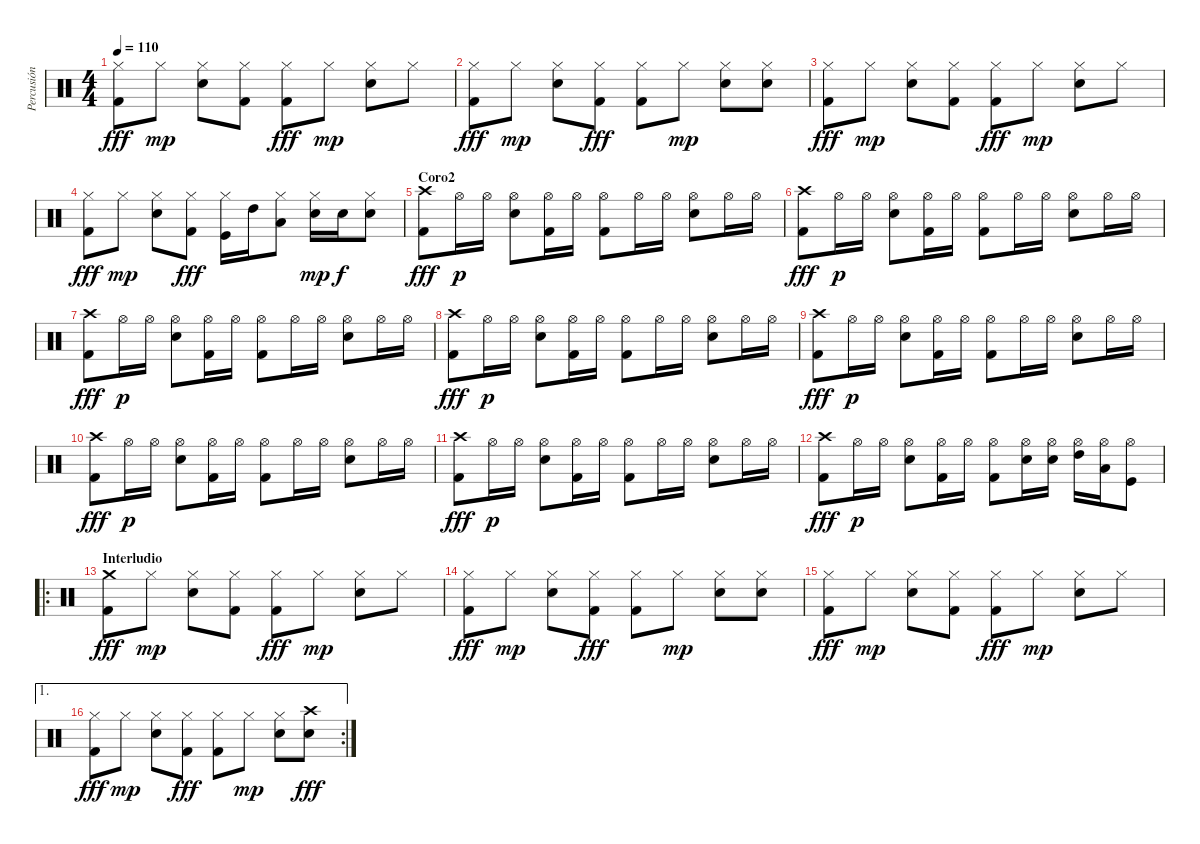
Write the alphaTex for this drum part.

\track ("Percusión" "Percusión") {instrument percussion}
\staff {score}
\articulation defaults
\ts (4 4)
\tempo 110
\clef neutral
\ks c
("Hi-Hat (closed)" "Kick (hit) 2").8{dy fff} "Hi-Hat (closed)".8{dy mp} ("Hi-Hat (closed)" "Snare (hit) 2").8 ("Hi-Hat (closed)" "Kick (hit) 2").8 ("Hi-Hat (closed)" "Kick (hit) 2").8{dy fff} "Hi-Hat (closed)".8{dy mp} ("Hi-Hat (closed)" "Snare (hit) 2").8 "Hi-Hat (closed)".8 |
("Hi-Hat (closed)" "Kick (hit) 2").8{dy fff} "Hi-Hat (closed)".8{dy mp} ("Hi-Hat (closed)" "Snare (hit) 2").8 ("Hi-Hat (closed)" "Kick (hit) 2").8{dy fff} ("Hi-Hat (closed)" "Kick (hit) 2").8 "Hi-Hat (closed)".8{dy mp} ("Hi-Hat (closed)" "Snare (hit) 2").8 ("Hi-Hat (closed)" "Snare (hit) 2").8 |
("Hi-Hat (closed)" "Kick (hit) 2").8{dy fff} "Hi-Hat (closed)".8{dy mp} ("Hi-Hat (closed)" "Snare (hit) 2").8 ("Hi-Hat (closed)" "Kick (hit) 2").8 ("Hi-Hat (closed)" "Kick (hit) 2").8{dy fff} "Hi-Hat (closed)".8{dy mp} ("Hi-Hat (closed)" "Snare (hit) 2").8 "Hi-Hat (closed)".8 |
("Hi-Hat (closed)" "Kick (hit) 2").8{dy fff} "Hi-Hat (closed)".8{dy mp} ("Hi-Hat (closed)" "Snare (hit) 2").8 ("Hi-Hat (closed)" "Kick (hit) 2").8{dy fff} ("Hi-Hat (closed)" "Kick (hit)").16 "High Tom (hit)".16 ("Hi-Hat (closed)" "Low Tom (hit)").8 ("Hi-Hat (closed)" "Snare (hit) 2").16{dy mp} "Snare (hit) 2".16{dy f} ("Hi-Hat (closed)" "Snare (hit) 2").8 |
\section ("" "Coro2")
("Crash high (hit)" "Kick (hit) 2").8{dy fff} "Hi-Hat (open)".16{dy p} "Hi-Hat (open)".16 ("Hi-Hat (open)" "Snare (hit) 2").8 ("Hi-Hat (open)" "Kick (hit) 2").16 "Hi-Hat (open)".16 ("Hi-Hat (open)" "Kick (hit) 2").8 "Hi-Hat (open)".16 "Hi-Hat (open)".16 ("Hi-Hat (open)" "Snare (hit) 2").8 "Hi-Hat (open)".16 "Hi-Hat (open)".16 |
("Crash high (hit)" "Kick (hit) 2").8{dy fff} "Hi-Hat (open)".16{dy p} "Hi-Hat (open)".16 ("Hi-Hat (open)" "Snare (hit) 2").8 ("Hi-Hat (open)" "Kick (hit) 2").16 "Hi-Hat (open)".16 ("Hi-Hat (open)" "Kick (hit) 2").8 "Hi-Hat (open)".16 "Hi-Hat (open)".16 ("Hi-Hat (open)" "Snare (hit) 2").8 "Hi-Hat (open)".16 "Hi-Hat (open)".16 |
("Crash high (hit)" "Kick (hit) 2").8{dy fff} "Hi-Hat (open)".16{dy p} "Hi-Hat (open)".16 ("Hi-Hat (open)" "Snare (hit) 2").8 ("Hi-Hat (open)" "Kick (hit) 2").16 "Hi-Hat (open)".16 ("Hi-Hat (open)" "Kick (hit) 2").8 "Hi-Hat (open)".16 "Hi-Hat (open)".16 ("Hi-Hat (open)" "Snare (hit) 2").8 "Hi-Hat (open)".16 "Hi-Hat (open)".16 |
("Crash high (hit)" "Kick (hit) 2").8{dy fff} "Hi-Hat (open)".16{dy p} "Hi-Hat (open)".16 ("Hi-Hat (open)" "Snare (hit) 2").8 ("Hi-Hat (open)" "Kick (hit) 2").16 "Hi-Hat (open)".16 ("Hi-Hat (open)" "Kick (hit) 2").8 "Hi-Hat (open)".16 "Hi-Hat (open)".16 ("Hi-Hat (open)" "Snare (hit) 2").8 "Hi-Hat (open)".16 "Hi-Hat (open)".16 |
("Crash high (hit)" "Kick (hit) 2").8{dy fff} "Hi-Hat (open)".16{dy p} "Hi-Hat (open)".16 ("Hi-Hat (open)" "Snare (hit) 2").8 ("Hi-Hat (open)" "Kick (hit) 2").16 "Hi-Hat (open)".16 ("Hi-Hat (open)" "Kick (hit) 2").8 "Hi-Hat (open)".16 "Hi-Hat (open)".16 ("Hi-Hat (open)" "Snare (hit) 2").8 "Hi-Hat (open)".16 "Hi-Hat (open)".16 |
("Crash high (hit)" "Kick (hit) 2").8{dy fff} "Hi-Hat (open)".16{dy p} "Hi-Hat (open)".16 ("Hi-Hat (open)" "Snare (hit) 2").8 ("Hi-Hat (open)" "Kick (hit) 2").16 "Hi-Hat (open)".16 ("Hi-Hat (open)" "Kick (hit) 2").8 "Hi-Hat (open)".16 "Hi-Hat (open)".16 ("Hi-Hat (open)" "Snare (hit) 2").8 "Hi-Hat (open)".16 "Hi-Hat (open)".16 |
("Crash high (hit)" "Kick (hit) 2").8{dy fff} "Hi-Hat (open)".16{dy p} "Hi-Hat (open)".16 ("Hi-Hat (open)" "Snare (hit) 2").8 ("Hi-Hat (open)" "Kick (hit) 2").16 "Hi-Hat (open)".16 ("Hi-Hat (open)" "Kick (hit) 2").8 "Hi-Hat (open)".16 "Hi-Hat (open)".16 ("Hi-Hat (open)" "Snare (hit) 2").8 "Hi-Hat (open)".16 "Hi-Hat (open)".16 |
("Crash high (hit)" "Kick (hit) 2").8{dy fff} "Hi-Hat (open)".16{dy p} "Hi-Hat (open)".16 ("Hi-Hat (open)" "Snare (hit) 2").8 ("Hi-Hat (open)" "Kick (hit) 2").16 "Hi-Hat (open)".16 ("Hi-Hat (open)" "Kick (hit) 2").8 ("Hi-Hat (open)" "Snare (hit) 2").16 ("Hi-Hat (open)" "Snare (hit) 2").16 ("Hi-Hat (open)" "High Tom (hit)").16 ("Hi-Hat (open)" "Low Tom (hit)").16 ("Hi-Hat (open)" "Kick (hit)").8 |
\ro
\section ("" "Interludio")
("Crash medium (hit)" "Kick (hit) 2").8{dy fff} "Hi-Hat (closed)".8{dy mp} ("Hi-Hat (closed)" "Snare (hit) 2").8 ("Hi-Hat (closed)" "Kick (hit) 2").8 ("Hi-Hat (closed)" "Kick (hit) 2").8{dy fff} "Hi-Hat (closed)".8{dy mp} ("Hi-Hat (closed)" "Snare (hit) 2").8 "Hi-Hat (closed)".8 |
("Hi-Hat (closed)" "Kick (hit) 2").8{dy fff} "Hi-Hat (closed)".8{dy mp} ("Hi-Hat (closed)" "Snare (hit) 2").8 ("Hi-Hat (closed)" "Kick (hit) 2").8{dy fff} ("Hi-Hat (closed)" "Kick (hit) 2").8 "Hi-Hat (closed)".8{dy mp} ("Hi-Hat (closed)" "Snare (hit) 2").8 ("Hi-Hat (closed)" "Snare (hit) 2").8 |
("Hi-Hat (closed)" "Kick (hit) 2").8{dy fff} "Hi-Hat (closed)".8{dy mp} ("Hi-Hat (closed)" "Snare (hit) 2").8 ("Hi-Hat (closed)" "Kick (hit) 2").8 ("Hi-Hat (closed)" "Kick (hit) 2").8{dy fff} "Hi-Hat (closed)".8{dy mp} ("Hi-Hat (closed)" "Snare (hit) 2").8 "Hi-Hat (closed)".8 |
\ae 1
\rc 2
("Hi-Hat (closed)" "Kick (hit) 2").8{dy fff} "Hi-Hat (closed)".8{dy mp} ("Hi-Hat (closed)" "Snare (hit) 2").8 ("Hi-Hat (closed)" "Kick (hit) 2").8{dy fff} ("Hi-Hat (closed)" "Kick (hit) 2").8 "Hi-Hat (closed)".8{dy mp} ("Hi-Hat (closed)" "Snare (hit) 2").8 ("Crash high (hit)" "Snare (hit) 2").8{dy fff}
